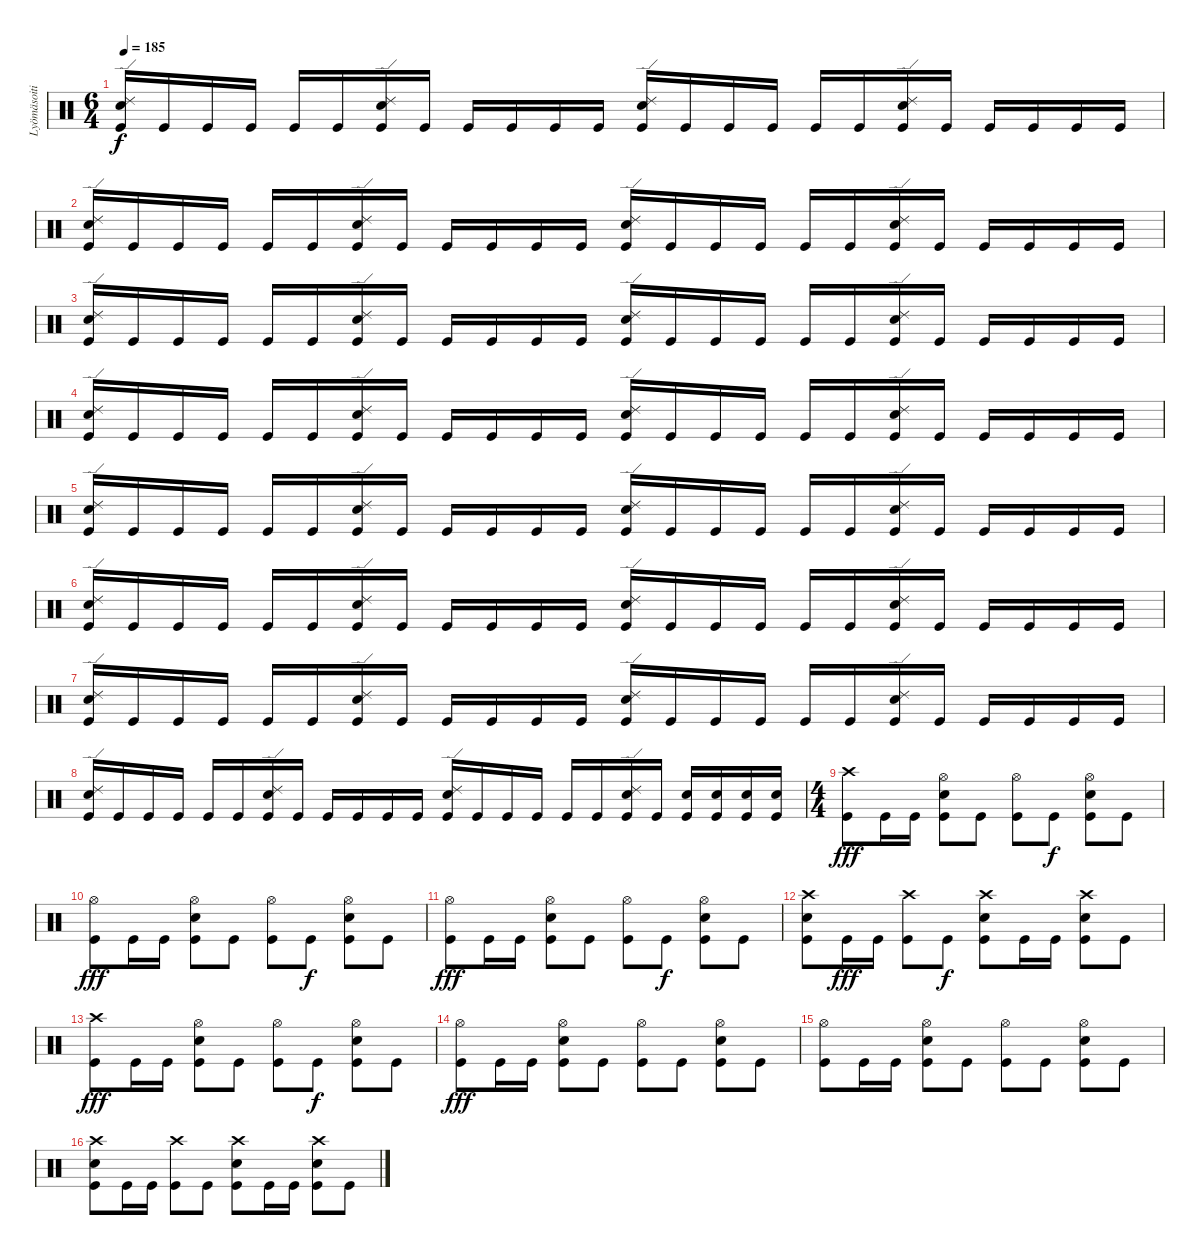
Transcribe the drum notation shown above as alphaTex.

\track ("Lyömäsoitin" "Lyömäsoiti") {instrument percussion}
\staff {score}
\articulation defaults
\ts (6 4)
\tempo 185
\clef neutral
\ks c
("Ride (edge) 2" "Electric Snare (hit)" "Kick (hit)").16{dy f} "Kick (hit)".16 "Kick (hit)".16 "Kick (hit)".16 "Kick (hit)".16 "Kick (hit)".16 ("Electric Snare (hit)" "Ride (edge) 2" "Kick (hit)").16 "Kick (hit)".16 "Kick (hit)".16 "Kick (hit)".16 "Kick (hit)".16 "Kick (hit)".16 ("Ride (edge) 2" "Electric Snare (hit)" "Kick (hit)").16 "Kick (hit)".16 "Kick (hit)".16 "Kick (hit)".16 "Kick (hit)".16 "Kick (hit)".16 ("Electric Snare (hit)" "Ride (edge) 2" "Kick (hit)").16 "Kick (hit)".16 "Kick (hit)".16 "Kick (hit)".16 "Kick (hit)".16 "Kick (hit)".16 |
("Ride (edge) 2" "Electric Snare (hit)" "Kick (hit)").16 "Kick (hit)".16 "Kick (hit)".16 "Kick (hit)".16 "Kick (hit)".16 "Kick (hit)".16 ("Electric Snare (hit)" "Ride (edge) 2" "Kick (hit)").16 "Kick (hit)".16 "Kick (hit)".16 "Kick (hit)".16 "Kick (hit)".16 "Kick (hit)".16 ("Ride (edge) 2" "Electric Snare (hit)" "Kick (hit)").16 "Kick (hit)".16 "Kick (hit)".16 "Kick (hit)".16 "Kick (hit)".16 "Kick (hit)".16 ("Electric Snare (hit)" "Ride (edge) 2" "Kick (hit)").16 "Kick (hit)".16 "Kick (hit)".16 "Kick (hit)".16 "Kick (hit)".16 "Kick (hit)".16 |
("Ride (edge) 2" "Electric Snare (hit)" "Kick (hit)").16 "Kick (hit)".16 "Kick (hit)".16 "Kick (hit)".16 "Kick (hit)".16 "Kick (hit)".16 ("Electric Snare (hit)" "Ride (edge) 2" "Kick (hit)").16 "Kick (hit)".16 "Kick (hit)".16 "Kick (hit)".16 "Kick (hit)".16 "Kick (hit)".16 ("Ride (edge) 2" "Electric Snare (hit)" "Kick (hit)").16 "Kick (hit)".16 "Kick (hit)".16 "Kick (hit)".16 "Kick (hit)".16 "Kick (hit)".16 ("Electric Snare (hit)" "Ride (edge) 2" "Kick (hit)").16 "Kick (hit)".16 "Kick (hit)".16 "Kick (hit)".16 "Kick (hit)".16 "Kick (hit)".16 |
("Ride (edge) 2" "Electric Snare (hit)" "Kick (hit)").16 "Kick (hit)".16 "Kick (hit)".16 "Kick (hit)".16 "Kick (hit)".16 "Kick (hit)".16 ("Electric Snare (hit)" "Ride (edge) 2" "Kick (hit)").16 "Kick (hit)".16 "Kick (hit)".16 "Kick (hit)".16 "Kick (hit)".16 "Kick (hit)".16 ("Ride (edge) 2" "Electric Snare (hit)" "Kick (hit)").16 "Kick (hit)".16 "Kick (hit)".16 "Kick (hit)".16 "Kick (hit)".16 "Kick (hit)".16 ("Electric Snare (hit)" "Ride (edge) 2" "Kick (hit)").16 "Kick (hit)".16 "Kick (hit)".16 "Kick (hit)".16 "Kick (hit)".16 "Kick (hit)".16 |
("Ride (edge) 2" "Electric Snare (hit)" "Kick (hit)").16 "Kick (hit)".16 "Kick (hit)".16 "Kick (hit)".16 "Kick (hit)".16 "Kick (hit)".16 ("Electric Snare (hit)" "Ride (edge) 2" "Kick (hit)").16 "Kick (hit)".16 "Kick (hit)".16 "Kick (hit)".16 "Kick (hit)".16 "Kick (hit)".16 ("Ride (edge) 2" "Electric Snare (hit)" "Kick (hit)").16 "Kick (hit)".16 "Kick (hit)".16 "Kick (hit)".16 "Kick (hit)".16 "Kick (hit)".16 ("Electric Snare (hit)" "Ride (edge) 2" "Kick (hit)").16 "Kick (hit)".16 "Kick (hit)".16 "Kick (hit)".16 "Kick (hit)".16 "Kick (hit)".16 |
("Ride (edge) 2" "Electric Snare (hit)" "Kick (hit)").16 "Kick (hit)".16 "Kick (hit)".16 "Kick (hit)".16 "Kick (hit)".16 "Kick (hit)".16 ("Electric Snare (hit)" "Ride (edge) 2" "Kick (hit)").16 "Kick (hit)".16 "Kick (hit)".16 "Kick (hit)".16 "Kick (hit)".16 "Kick (hit)".16 ("Ride (edge) 2" "Electric Snare (hit)" "Kick (hit)").16 "Kick (hit)".16 "Kick (hit)".16 "Kick (hit)".16 "Kick (hit)".16 "Kick (hit)".16 ("Electric Snare (hit)" "Ride (edge) 2" "Kick (hit)").16 "Kick (hit)".16 "Kick (hit)".16 "Kick (hit)".16 "Kick (hit)".16 "Kick (hit)".16 |
("Ride (edge) 2" "Electric Snare (hit)" "Kick (hit)").16 "Kick (hit)".16 "Kick (hit)".16 "Kick (hit)".16 "Kick (hit)".16 "Kick (hit)".16 ("Electric Snare (hit)" "Ride (edge) 2" "Kick (hit)").16 "Kick (hit)".16 "Kick (hit)".16 "Kick (hit)".16 "Kick (hit)".16 "Kick (hit)".16 ("Ride (edge) 2" "Electric Snare (hit)" "Kick (hit)").16 "Kick (hit)".16 "Kick (hit)".16 "Kick (hit)".16 "Kick (hit)".16 "Kick (hit)".16 ("Electric Snare (hit)" "Ride (edge) 2" "Kick (hit)").16 "Kick (hit)".16 "Kick (hit)".16 "Kick (hit)".16 "Kick (hit)".16 "Kick (hit)".16 |
("Ride (edge) 2" "Electric Snare (hit)" "Kick (hit)").16 "Kick (hit)".16 "Kick (hit)".16 "Kick (hit)".16 "Kick (hit)".16 "Kick (hit)".16 ("Electric Snare (hit)" "Ride (edge) 2" "Kick (hit)").16 "Kick (hit)".16 "Kick (hit)".16 "Kick (hit)".16 "Kick (hit)".16 "Kick (hit)".16 ("Ride (edge) 2" "Electric Snare (hit)" "Kick (hit)").16 "Kick (hit)".16 "Kick (hit)".16 "Kick (hit)".16 "Kick (hit)".16 "Kick (hit)".16 ("Electric Snare (hit)" "Ride (edge) 2" "Kick (hit)").16 "Kick (hit)".16 ("Electric Snare (hit)" "Kick (hit)").16 ("Electric Snare (hit)" "Kick (hit)").16 ("Electric Snare (hit)" "Kick (hit)").16 ("Electric Snare (hit)" "Kick (hit)").16 |
\ts (4 4)
("Crash high (hit)" "Kick (hit)").8{dy fff} "Kick (hit)".16 "Kick (hit)".16 ("Hi-Hat (open)" "Electric Snare (hit)" "Kick (hit)").8 "Kick (hit)".8 ("Hi-Hat (open)" "Kick (hit)").8 "Kick (hit)".8{dy f} ("Hi-Hat (open)" "Electric Snare (hit)" "Kick (hit)").8 "Kick (hit)".8 |
("Hi-Hat (open)" "Kick (hit)").8{dy fff} "Kick (hit)".16 "Kick (hit)".16 ("Hi-Hat (open)" "Electric Snare (hit)" "Kick (hit)").8 "Kick (hit)".8 ("Hi-Hat (open)" "Kick (hit)").8 "Kick (hit)".8{dy f} ("Hi-Hat (open)" "Electric Snare (hit)" "Kick (hit)").8 "Kick (hit)".8 |
("Hi-Hat (open)" "Kick (hit)").8{dy fff} "Kick (hit)".16 "Kick (hit)".16 ("Hi-Hat (open)" "Electric Snare (hit)" "Kick (hit)").8 "Kick (hit)".8 ("Hi-Hat (open)" "Kick (hit)").8 "Kick (hit)".8{dy f} ("Hi-Hat (open)" "Electric Snare (hit)" "Kick (hit)").8 "Kick (hit)".8 |
("Crash high (hit)" "Electric Snare (hit)" "Kick (hit)").8 "Kick (hit)".16{dy fff} "Kick (hit)".16 ("Crash high (hit)" "Kick (hit)").8 "Kick (hit)".8{dy f} ("Crash high (hit)" "Electric Snare (hit)" "Kick (hit)").8 "Kick (hit)".16 "Kick (hit)".16 ("Crash high (hit)" "Electric Snare (hit)" "Kick (hit)").8 "Kick (hit)".8 |
("Crash high (hit)" "Kick (hit)").8{dy fff} "Kick (hit)".16 "Kick (hit)".16 ("Hi-Hat (open)" "Electric Snare (hit)" "Kick (hit)").8 "Kick (hit)".8 ("Hi-Hat (open)" "Kick (hit)").8 "Kick (hit)".8{dy f} ("Hi-Hat (open)" "Electric Snare (hit)" "Kick (hit)").8 "Kick (hit)".8 |
("Hi-Hat (open)" "Kick (hit)").8{dy fff} "Kick (hit)".16 "Kick (hit)".16 ("Hi-Hat (open)" "Electric Snare (hit)" "Kick (hit)").8 "Kick (hit)".8 ("Hi-Hat (open)" "Kick (hit)").8 "Kick (hit)".8 ("Hi-Hat (open)" "Electric Snare (hit)" "Kick (hit)").8 "Kick (hit)".8 |
("Hi-Hat (open)" "Kick (hit)").8 "Kick (hit)".16 "Kick (hit)".16 ("Hi-Hat (open)" "Electric Snare (hit)" "Kick (hit)").8 "Kick (hit)".8 ("Hi-Hat (open)" "Kick (hit)").8 "Kick (hit)".8 ("Hi-Hat (open)" "Electric Snare (hit)" "Kick (hit)").8 "Kick (hit)".8 |
("Crash high (hit)" "Electric Snare (hit)" "Kick (hit)").8 "Kick (hit)".16 "Kick (hit)".16 ("Crash high (hit)" "Kick (hit)").8 "Kick (hit)".8 ("Crash high (hit)" "Electric Snare (hit)" "Kick (hit)").8 "Kick (hit)".16 "Kick (hit)".16 ("Crash high (hit)" "Electric Snare (hit)" "Kick (hit)").8 "Kick (hit)".8
